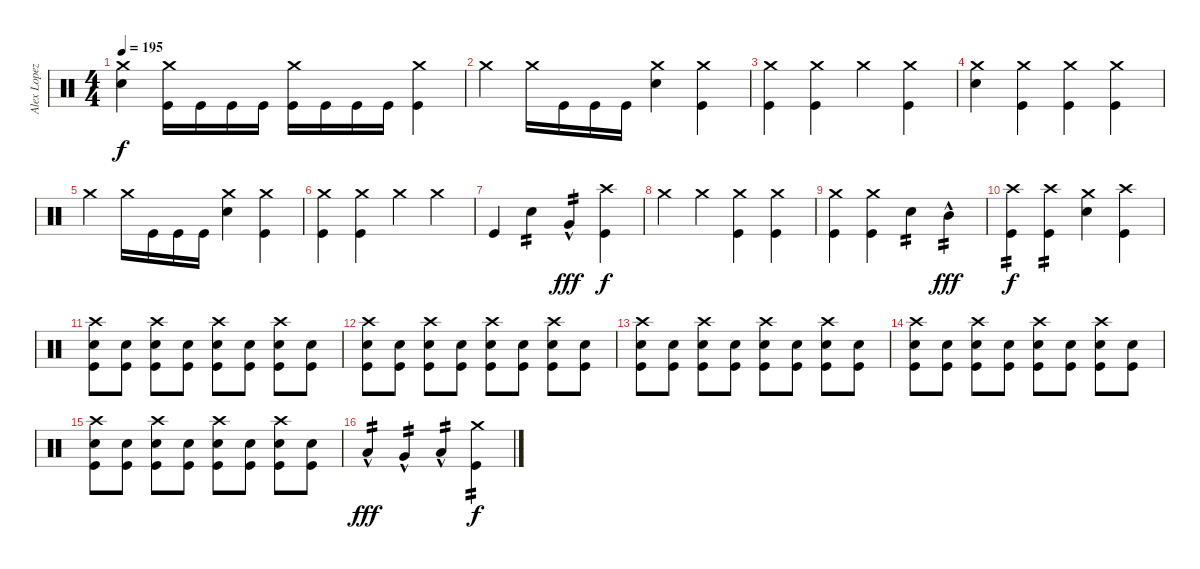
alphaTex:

\track ("Alex Lopez" "Alex Lopez") {instrument percussion}
\staff {score}
\articulation defaults
\ts (4 4)
\tempo 195
\clef neutral
\ks c
("Crash medium (hit)" "Electric Snare (hit)").4{dy f} ("Crash medium (hit)" "Kick (hit)").16 "Kick (hit)".16 "Kick (hit)".16 "Kick (hit)".16 ("Crash medium (hit)" "Kick (hit)").16 "Kick (hit)".16 "Kick (hit)".16 "Kick (hit)".16 ("Crash medium (hit)" "Kick (hit)").4 |
"Crash medium (hit)".4 "Crash medium (hit)".16 "Kick (hit)".16 "Kick (hit)".16 "Kick (hit)".16 ("Crash medium (hit)" "Electric Snare (hit)").4 ("Crash medium (hit)" "Kick (hit)").4 |
("Crash medium (hit)" "Kick (hit)").4 ("Crash medium (hit)" "Kick (hit)").4 "Crash medium (hit)".4 ("Crash medium (hit)" "Kick (hit)").4 |
("Crash medium (hit)" "Electric Snare (hit)").4 ("Crash medium (hit)" "Kick (hit)").4 ("Crash medium (hit)" "Kick (hit)").4 ("Crash medium (hit)" "Kick (hit)").4 |
"Crash medium (hit)".4 "Crash medium (hit)".16 "Kick (hit)".16 "Kick (hit)".16 "Kick (hit)".16 ("Crash medium (hit)" "Electric Snare (hit)").4 ("Crash medium (hit)" "Kick (hit)").4 |
("Crash medium (hit)" "Kick (hit)").4 ("Crash medium (hit)" "Kick (hit)").4 "Crash medium (hit)".4 "Crash medium (hit)".4 |
"Kick (hit)".4 "Electric Snare (hit)".4{tp 2} "Very Low Tom (hit)"{hac}.4{tp 2 dy fff} ("Crash high (hit)" "Kick (hit)").4{dy f} |
"Crash medium (hit)".4 "Crash medium (hit)".4 ("Crash medium (hit)" "Kick (hit)").4 ("Crash medium (hit)" "Kick (hit)").4 |
("Crash medium (hit)" "Kick (hit)").4 ("Crash medium (hit)" "Kick (hit)").4 "Electric Snare (hit)".4{tp 2} "Mid Tom (hit)"{hac}.4{tp 2 dy fff} |
("Crash high (hit)" "Kick (hit)").4{tp 2 dy f} ("Crash high (hit)" "Kick (hit)").4{tp 2} ("Crash medium (hit)" "Electric Snare (hit)").4 ("Crash high (hit)" "Kick (hit)").4 |
("Crash high (hit)" "Electric Snare (hit)" "Kick (hit)").8 ("Electric Snare (hit)" "Kick (hit)").8 ("Crash high (hit)" "Electric Snare (hit)" "Kick (hit)").8 ("Electric Snare (hit)" "Kick (hit)").8 ("Crash high (hit)" "Electric Snare (hit)" "Kick (hit)").8 ("Electric Snare (hit)" "Kick (hit)").8 ("Crash high (hit)" "Electric Snare (hit)" "Kick (hit)").8 ("Electric Snare (hit)" "Kick (hit)").8 |
("Crash high (hit)" "Electric Snare (hit)" "Kick (hit)").8 ("Electric Snare (hit)" "Kick (hit)").8 ("Crash high (hit)" "Electric Snare (hit)" "Kick (hit)").8 ("Electric Snare (hit)" "Kick (hit)").8 ("Crash high (hit)" "Electric Snare (hit)" "Kick (hit)").8 ("Electric Snare (hit)" "Kick (hit)").8 ("Crash high (hit)" "Electric Snare (hit)" "Kick (hit)").8 ("Electric Snare (hit)" "Kick (hit)").8 |
("Crash high (hit)" "Electric Snare (hit)" "Kick (hit)").8 ("Electric Snare (hit)" "Kick (hit)").8 ("Crash high (hit)" "Electric Snare (hit)" "Kick (hit)").8 ("Electric Snare (hit)" "Kick (hit)").8 ("Crash high (hit)" "Electric Snare (hit)" "Kick (hit)").8 ("Electric Snare (hit)" "Kick (hit)").8 ("Crash high (hit)" "Electric Snare (hit)" "Kick (hit)").8 ("Electric Snare (hit)" "Kick (hit)").8 |
("Crash high (hit)" "Electric Snare (hit)" "Kick (hit)").8 ("Electric Snare (hit)" "Kick (hit)").8 ("Crash high (hit)" "Electric Snare (hit)" "Kick (hit)").8 ("Electric Snare (hit)" "Kick (hit)").8 ("Crash high (hit)" "Electric Snare (hit)" "Kick (hit)").8 ("Electric Snare (hit)" "Kick (hit)").8 ("Crash high (hit)" "Electric Snare (hit)" "Kick (hit)").8 ("Electric Snare (hit)" "Kick (hit)").8 |
("Crash high (hit)" "Electric Snare (hit)" "Kick (hit)").8 ("Electric Snare (hit)" "Kick (hit)").8 ("Crash high (hit)" "Electric Snare (hit)" "Kick (hit)").8 ("Electric Snare (hit)" "Kick (hit)").8 ("Crash high (hit)" "Electric Snare (hit)" "Kick (hit)").8 ("Electric Snare (hit)" "Kick (hit)").8 ("Crash high (hit)" "Electric Snare (hit)" "Kick (hit)").8 ("Electric Snare (hit)" "Kick (hit)").8 |
"Low Tom (hit)"{hac}.4{tp 2 dy fff} "Very Low Tom (hit)"{hac}.4{tp 2} "Low Floor Tom (hit)"{hac}.4{tp 2} ("Crash medium (hit)" "Kick (hit)").4{tp 2 dy f}
